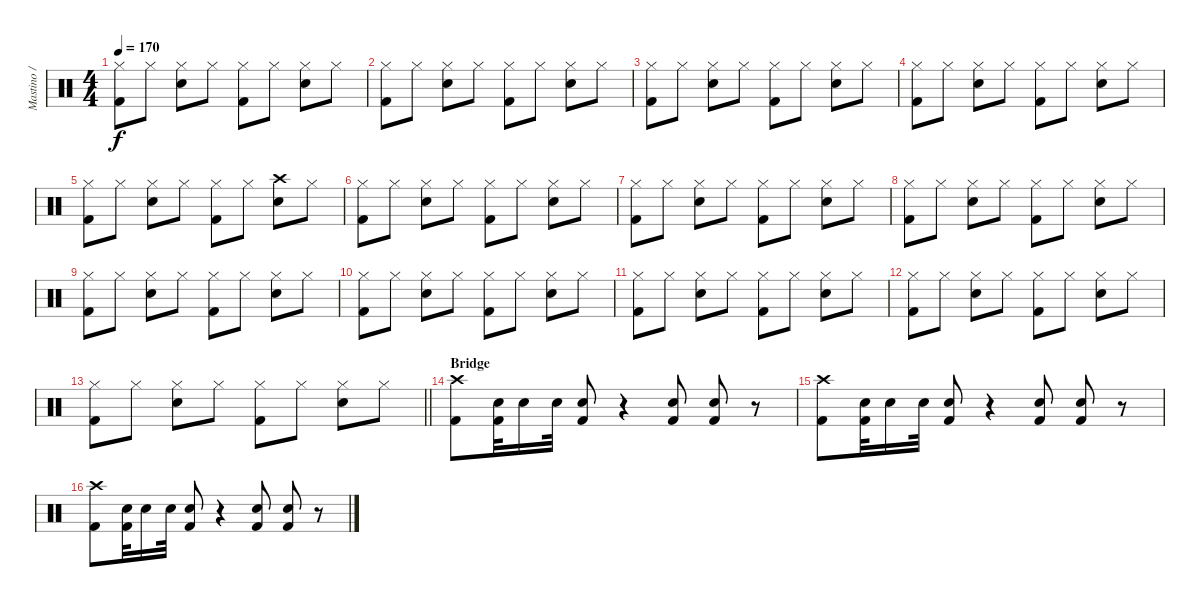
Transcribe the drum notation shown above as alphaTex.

\track ("Mastino / Drums" "Mastino / ") {instrument percussion}
\staff {score}
\articulation defaults
\ts (4 4)
\tempo 170
\clef neutral
\ks c
("Hi-Hat (closed)" "Kick (hit) 2").8{dy f} "Hi-Hat (closed)".8 ("Hi-Hat (closed)" "Electric Snare (hit)").8 "Hi-Hat (closed)".8 ("Hi-Hat (closed)" "Kick (hit) 2").8 "Hi-Hat (closed)".8 ("Hi-Hat (closed)" "Electric Snare (hit)").8 "Hi-Hat (closed)".8 |
("Hi-Hat (closed)" "Kick (hit) 2").8 "Hi-Hat (closed)".8 ("Hi-Hat (closed)" "Electric Snare (hit)").8 "Hi-Hat (closed)".8 ("Hi-Hat (closed)" "Kick (hit) 2").8 "Hi-Hat (closed)".8 ("Hi-Hat (closed)" "Electric Snare (hit)").8 "Hi-Hat (closed)".8 |
("Hi-Hat (closed)" "Kick (hit) 2").8 "Hi-Hat (closed)".8 ("Hi-Hat (closed)" "Electric Snare (hit)").8 "Hi-Hat (closed)".8 ("Hi-Hat (closed)" "Kick (hit) 2").8 "Hi-Hat (closed)".8 ("Hi-Hat (closed)" "Electric Snare (hit)").8 "Hi-Hat (closed)".8 |
("Hi-Hat (closed)" "Kick (hit) 2").8 "Hi-Hat (closed)".8 ("Hi-Hat (closed)" "Electric Snare (hit)").8 "Hi-Hat (closed)".8 ("Hi-Hat (closed)" "Kick (hit) 2").8 "Hi-Hat (closed)".8 ("Hi-Hat (closed)" "Electric Snare (hit)").8 "Hi-Hat (closed)".8 |
("Hi-Hat (closed)" "Kick (hit) 2").8 "Hi-Hat (closed)".8 ("Hi-Hat (closed)" "Electric Snare (hit)").8 "Hi-Hat (closed)".8 ("Hi-Hat (closed)" "Kick (hit) 2").8 "Hi-Hat (closed)".8 ("Crash high (hit)" "Electric Snare (hit)").8 "Hi-Hat (closed)".8 |
("Hi-Hat (closed)" "Kick (hit) 2").8 "Hi-Hat (closed)".8 ("Hi-Hat (closed)" "Electric Snare (hit)").8 "Hi-Hat (closed)".8 ("Hi-Hat (closed)" "Kick (hit) 2").8 "Hi-Hat (closed)".8 ("Hi-Hat (closed)" "Electric Snare (hit)").8 "Hi-Hat (closed)".8 |
("Hi-Hat (closed)" "Kick (hit) 2").8 "Hi-Hat (closed)".8 ("Hi-Hat (closed)" "Electric Snare (hit)").8 "Hi-Hat (closed)".8 ("Hi-Hat (closed)" "Kick (hit) 2").8 "Hi-Hat (closed)".8 ("Hi-Hat (closed)" "Electric Snare (hit)").8 "Hi-Hat (closed)".8 |
("Hi-Hat (closed)" "Kick (hit) 2").8 "Hi-Hat (closed)".8 ("Hi-Hat (closed)" "Electric Snare (hit)").8 "Hi-Hat (closed)".8 ("Hi-Hat (closed)" "Kick (hit) 2").8 "Hi-Hat (closed)".8 ("Hi-Hat (closed)" "Electric Snare (hit)").8 "Hi-Hat (closed)".8 |
("Hi-Hat (closed)" "Kick (hit) 2").8 "Hi-Hat (closed)".8 ("Hi-Hat (closed)" "Electric Snare (hit)").8 "Hi-Hat (closed)".8 ("Hi-Hat (closed)" "Kick (hit) 2").8 "Hi-Hat (closed)".8 ("Hi-Hat (closed)" "Electric Snare (hit)").8 "Hi-Hat (closed)".8 |
("Hi-Hat (closed)" "Kick (hit) 2").8 "Hi-Hat (closed)".8 ("Hi-Hat (closed)" "Electric Snare (hit)").8 "Hi-Hat (closed)".8 ("Hi-Hat (closed)" "Kick (hit) 2").8 "Hi-Hat (closed)".8 ("Hi-Hat (closed)" "Electric Snare (hit)").8 "Hi-Hat (closed)".8 |
("Hi-Hat (closed)" "Kick (hit) 2").8 "Hi-Hat (closed)".8 ("Hi-Hat (closed)" "Electric Snare (hit)").8 "Hi-Hat (closed)".8 ("Hi-Hat (closed)" "Kick (hit) 2").8 "Hi-Hat (closed)".8 ("Hi-Hat (closed)" "Electric Snare (hit)").8 "Hi-Hat (closed)".8 |
("Hi-Hat (closed)" "Kick (hit) 2").8 "Hi-Hat (closed)".8 ("Hi-Hat (closed)" "Electric Snare (hit)").8 "Hi-Hat (closed)".8 ("Hi-Hat (closed)" "Kick (hit) 2").8 "Hi-Hat (closed)".8 ("Hi-Hat (closed)" "Electric Snare (hit)").8 "Hi-Hat (closed)".8 |
\barLineRight lightlight
("Hi-Hat (closed)" "Kick (hit) 2").8 "Hi-Hat (closed)".8 ("Hi-Hat (closed)" "Electric Snare (hit)").8 "Hi-Hat (closed)".8 ("Hi-Hat (closed)" "Kick (hit) 2").8 "Hi-Hat (closed)".8 ("Hi-Hat (closed)" "Electric Snare (hit)").8 "Hi-Hat (closed)".8 |
\section ("" "Bridge")
("Crash high (hit)" "Kick (hit) 2").8 ("Electric Snare (hit)" "Kick (hit) 2").32 "Electric Snare (hit)".16 "Electric Snare (hit)".32 ("Electric Snare (hit)" "Kick (hit) 2").8 r.4 ("Electric Snare (hit)" "Kick (hit) 2").8 ("Electric Snare (hit)" "Kick (hit) 2").8 r.8 |
("Crash high (hit)" "Kick (hit) 2").8 ("Electric Snare (hit)" "Kick (hit) 2").32 "Electric Snare (hit)".16 "Electric Snare (hit)".32 ("Electric Snare (hit)" "Kick (hit) 2").8 r.4 ("Electric Snare (hit)" "Kick (hit) 2").8 ("Electric Snare (hit)" "Kick (hit) 2").8 r.8 |
("Crash high (hit)" "Kick (hit) 2").8 ("Electric Snare (hit)" "Kick (hit) 2").32 "Electric Snare (hit)".16 "Electric Snare (hit)".32 ("Electric Snare (hit)" "Kick (hit) 2").8 r.4 ("Electric Snare (hit)" "Kick (hit) 2").8 ("Electric Snare (hit)" "Kick (hit) 2").8 r.8
